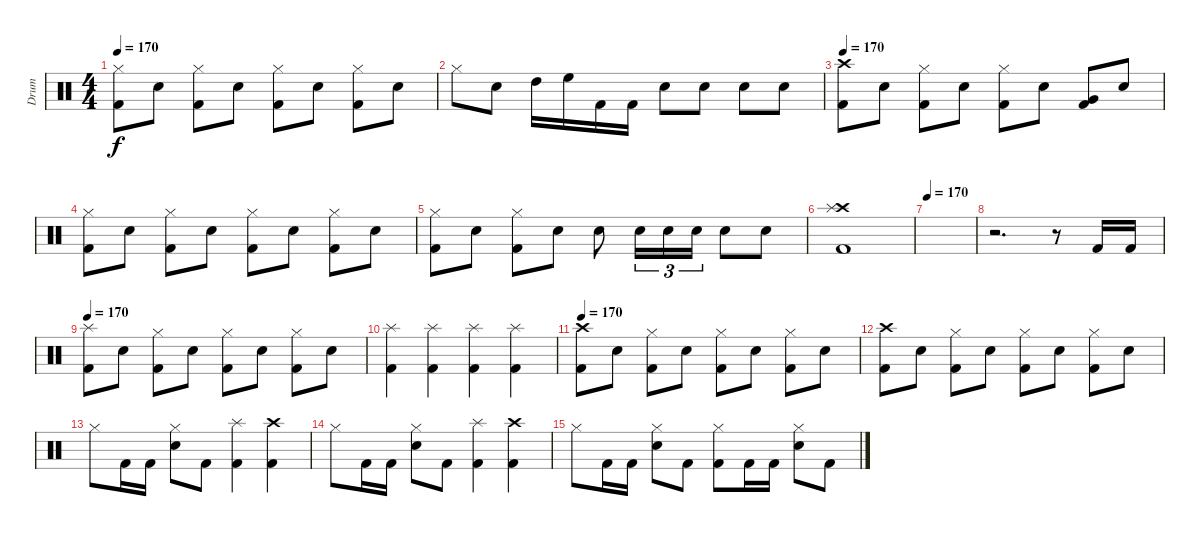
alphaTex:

\track ("Drum" "Drum") {instrument percussion}
\staff {score}
\articulation defaults
\ts (4 4)
\tempo 170
\clef neutral
\ks c
("Hi-Hat (closed)" "Kick (hit) 2").8{dy f} "Electric Snare (hit)".8 ("Hi-Hat (closed)" "Kick (hit) 2").8 "Electric Snare (hit)".8 ("Hi-Hat (closed)" "Kick (hit) 2").8 "Electric Snare (hit)".8 ("Hi-Hat (closed)" "Kick (hit) 2").8 "Electric Snare (hit)".8 |
"Hi-Hat (closed)".8 "Electric Snare (hit)".8 "High Tom (hit)".16 "High Floor Tom (hit)".16 "Kick (hit) 2".16 "Kick (hit) 2".16 "Electric Snare (hit)".8 "Electric Snare (hit)".8 "Electric Snare (hit)".8 "Electric Snare (hit)".8 |
\tempo 170
("Crash high (hit)" "Kick (hit) 2").8 "Electric Snare (hit)".8 ("Hi-Hat (closed)" "Kick (hit) 2").8 "Electric Snare (hit)".8 ("Hi-Hat (closed)" "Kick (hit) 2").8 "Electric Snare (hit)".8 ("Very Low Tom (hit)" "Kick (hit) 2").8 "Electric Snare (hit)".8 |
("Hi-Hat (closed)" "Kick (hit) 2").8 "Electric Snare (hit)".8 ("Hi-Hat (closed)" "Kick (hit) 2").8 "Electric Snare (hit)".8 ("Hi-Hat (closed)" "Kick (hit) 2").8 "Electric Snare (hit)".8 ("Hi-Hat (closed)" "Kick (hit) 2").8 "Electric Snare (hit)".8 |
("Hi-Hat (closed)" "Kick (hit) 2").8 "Electric Snare (hit)".8 ("Hi-Hat (closed)" "Kick (hit) 2").8 "Electric Snare (hit)".8 "Electric Snare (hit)".8 "Electric Snare (hit)".16{tu (3 2)} "Electric Snare (hit)".16{tu (3 2)} "Electric Snare (hit)".16{tu (3 2)} "Electric Snare (hit)".8 "Electric Snare (hit)".8 |
("Crash high (hit)" "Splash (hit)" "Kick (hit) 2").1 |
\tempo 170
|
r.2{d} r.8 "Kick (hit) 2".16 "Kick (hit) 2".16 |
\tempo 170
("Splash (hit)" "Kick (hit) 2").8 "Electric Snare (hit)".8 ("Hi-Hat (closed)" "Kick (hit) 2").8 "Electric Snare (hit)".8 ("Hi-Hat (closed)" "Kick (hit) 2").8 "Electric Snare (hit)".8 ("Hi-Hat (closed)" "Kick (hit) 2").8 "Electric Snare (hit)".8 |
("Splash (hit)" "Kick (hit) 2").4 ("Splash (hit)" "Kick (hit) 2").4 ("Splash (hit)" "Kick (hit) 2").4 ("Splash (hit)" "Kick (hit) 2").4 |
\tempo 170
("Crash high (hit)" "Kick (hit) 2").8 "Electric Snare (hit)".8 ("Hi-Hat (closed)" "Kick (hit) 2").8 "Electric Snare (hit)".8 ("Hi-Hat (closed)" "Kick (hit) 2").8 "Electric Snare (hit)".8 ("Hi-Hat (closed)" "Kick (hit) 2").8 "Electric Snare (hit)".8 |
("Crash high (hit)" "Kick (hit) 2").8 "Electric Snare (hit)".8 ("Hi-Hat (closed)" "Kick (hit) 2").8 "Electric Snare (hit)".8 ("Hi-Hat (closed)" "Kick (hit) 2").8 "Electric Snare (hit)".8 ("Hi-Hat (closed)" "Kick (hit) 2").8 "Electric Snare (hit)".8 |
"Hi-Hat (closed)".8 "Kick (hit) 2".16 "Kick (hit) 2".16 ("Hi-Hat (closed)" "Electric Snare (hit)").8 "Kick (hit) 2".8 ("Splash (hit)" "Kick (hit) 2").4 ("Crash high (hit)" "Kick (hit) 2").4 |
"Hi-Hat (closed)".8 "Kick (hit) 2".16 "Kick (hit) 2".16 ("Hi-Hat (closed)" "Electric Snare (hit)").8 "Kick (hit) 2".8 ("Splash (hit)" "Kick (hit) 2").4 ("Crash high (hit)" "Kick (hit) 2").4 |
"Hi-Hat (closed)".8 "Kick (hit) 2".16 "Kick (hit) 2".16 ("Hi-Hat (closed)" "Electric Snare (hit)").8 "Kick (hit) 2".8 ("Hi-Hat (closed)" "Kick (hit) 2").8 "Kick (hit) 2".16 "Kick (hit) 2".16 ("Hi-Hat (closed)" "Snare (hit) 2").8 "Kick (hit) 2".8
